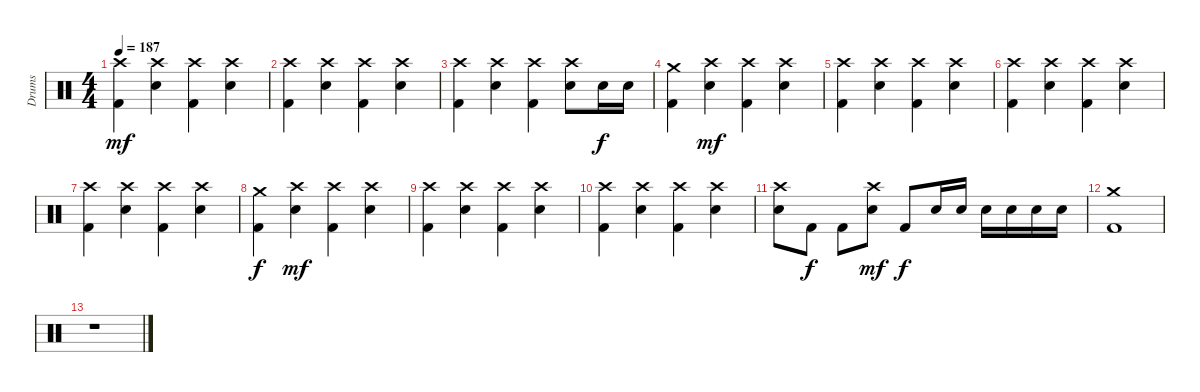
\track ("Drums" "Drums") {instrument percussion}
\staff {score}
\articulation defaults
\ts (4 4)
\tempo 187
\clef neutral
\ks c
("Crash high (hit)" "Kick (hit) 2").4{dy mf} ("Crash high (hit)" "Snare (hit) 2").4 ("Crash high (hit)" "Kick (hit) 2").4 ("Crash high (hit)" "Snare (hit) 2").4 |
("Crash high (hit)" "Kick (hit) 2").4 ("Crash high (hit)" "Snare (hit) 2").4 ("Crash high (hit)" "Kick (hit) 2").4 ("Crash high (hit)" "Snare (hit) 2").4 |
("Crash high (hit)" "Kick (hit) 2").4 ("Crash high (hit)" "Snare (hit) 2").4 ("Crash high (hit)" "Kick (hit) 2").4 ("Crash high (hit)" "Snare (hit) 2").8 "Snare (hit) 2".16{dy f} "Snare (hit) 2".16 |
("Crash medium (hit)" "Kick (hit) 2").4 ("Crash high (hit)" "Snare (hit) 2").4{dy mf} ("Crash high (hit)" "Kick (hit) 2").4 ("Crash high (hit)" "Snare (hit) 2").4 |
("Crash high (hit)" "Kick (hit) 2").4 ("Crash high (hit)" "Snare (hit) 2").4 ("Crash high (hit)" "Kick (hit) 2").4 ("Crash high (hit)" "Snare (hit) 2").4 |
("Crash high (hit)" "Kick (hit) 2").4 ("Crash high (hit)" "Snare (hit) 2").4 ("Crash high (hit)" "Kick (hit) 2").4 ("Crash high (hit)" "Snare (hit) 2").4 |
("Crash high (hit)" "Kick (hit) 2").4 ("Crash high (hit)" "Snare (hit) 2").4 ("Crash high (hit)" "Kick (hit) 2").4 ("Crash high (hit)" "Snare (hit) 2").4 |
("Crash medium (hit)" "Kick (hit) 2").4{dy f} ("Crash high (hit)" "Snare (hit) 2").4{dy mf} ("Crash high (hit)" "Kick (hit) 2").4 ("Crash high (hit)" "Snare (hit) 2").4 |
("Crash high (hit)" "Kick (hit) 2").4 ("Crash high (hit)" "Snare (hit) 2").4 ("Crash high (hit)" "Kick (hit) 2").4 ("Crash high (hit)" "Snare (hit) 2").4 |
("Crash high (hit)" "Kick (hit) 2").4 ("Crash high (hit)" "Snare (hit) 2").4 ("Crash high (hit)" "Kick (hit) 2").4 ("Crash high (hit)" "Snare (hit) 2").4 |
("Crash high (hit)" "Snare (hit) 2").8 "Kick (hit) 2".8{dy f} "Kick (hit) 2".8 ("Crash high (hit)" "Snare (hit) 2").8{dy mf} "Kick (hit) 2".8{dy f} "Snare (hit) 2".16 "Snare (hit) 2".16 "Snare (hit) 2".16 "Snare (hit) 2".16 "Snare (hit) 2".16 "Snare (hit) 2".16 |
("Crash medium (hit)" "Kick (hit) 2").1 |
r.1
